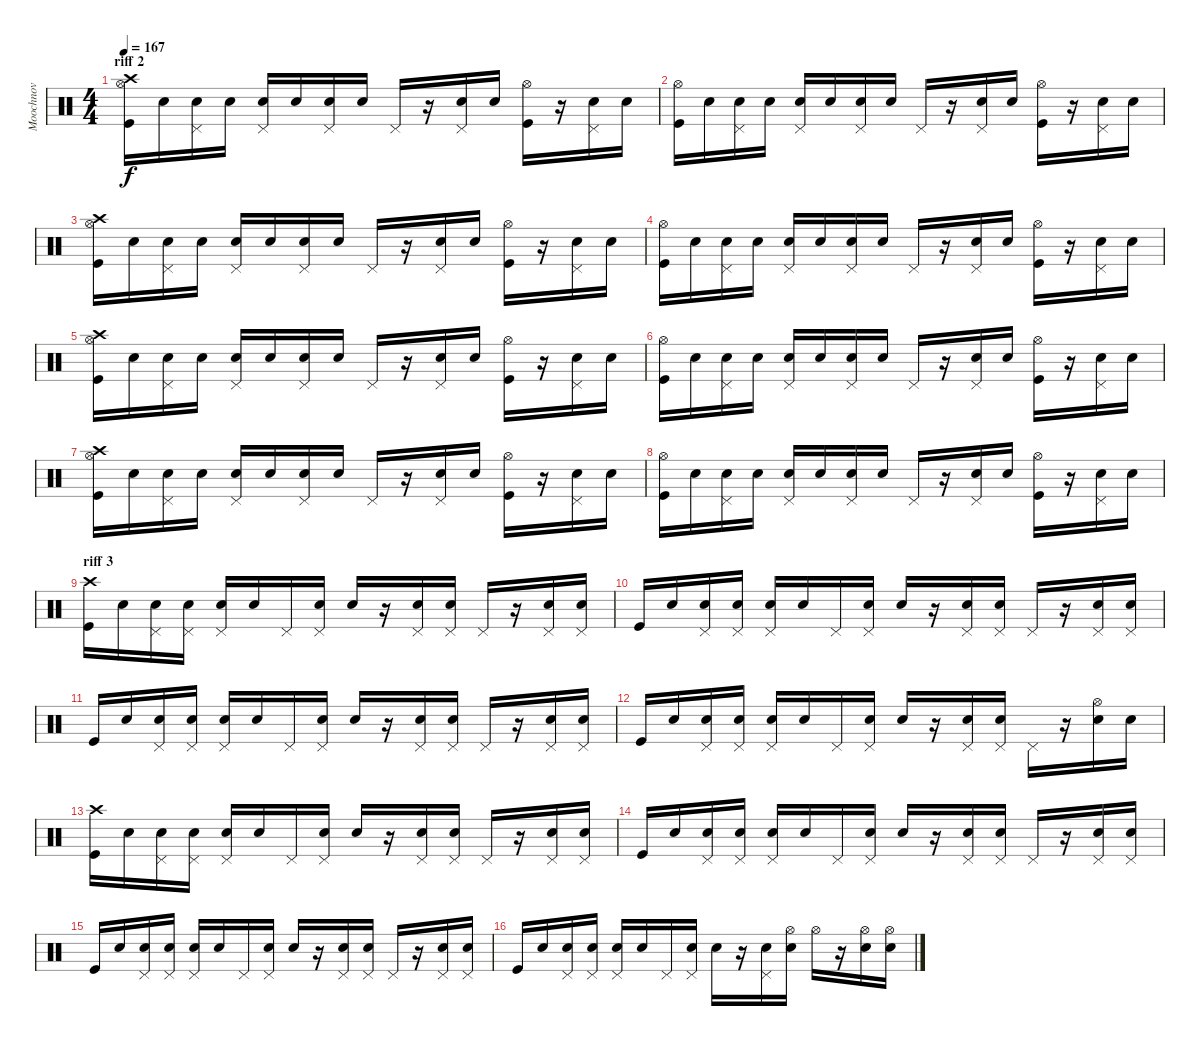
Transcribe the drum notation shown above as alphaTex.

\track ("Moochnov" "Moochnov") {instrument percussion}
\staff {score}
\articulation defaults
\ts (4 4)
\section ("" "riff 2")
\tempo 167
\clef neutral
\ks c
("Kick (hit)" "Hi-Hat (open)" "Crash high (hit)").16{dy f} "Snare (hit)"{x}.16 ("Snare (hit)"{x} "Pedal Hi-Hat (hit)").16 "Snare (hit)"{x}.16 ("Snare (hit)"{x} "Pedal Hi-Hat (hit)").16 "Snare (hit)"{x}.16 ("Snare (hit) 2" "Pedal Hi-Hat (hit)").16 "Snare (hit)"{x}.16 "Pedal Hi-Hat (hit)".16 r.16 ("Snare (hit)"{x} "Pedal Hi-Hat (hit)").16 "Snare (hit)"{x}.16 ("Kick (hit)" "Hi-Hat (open)").16 r.16 ("Snare (hit)"{x} "Pedal Hi-Hat (hit)").16 "Snare (hit)"{x}.16 |
("Kick (hit)" "Hi-Hat (open)").16 "Snare (hit)"{x}.16 ("Snare (hit)"{x} "Pedal Hi-Hat (hit)").16 "Snare (hit)"{x}.16 ("Snare (hit)"{x} "Pedal Hi-Hat (hit)").16 "Snare (hit)"{x}.16 ("Snare (hit) 2" "Pedal Hi-Hat (hit)").16 "Snare (hit)"{x}.16 "Pedal Hi-Hat (hit)".16 r.16 ("Snare (hit)"{x} "Pedal Hi-Hat (hit)").16 "Snare (hit)"{x}.16 ("Kick (hit)" "Hi-Hat (open)").16 r.16 ("Snare (hit)"{x} "Pedal Hi-Hat (hit)").16 "Snare (hit)"{x}.16 |
("Kick (hit)" "Hi-Hat (open)" "Crash high (hit)").16 "Snare (hit)"{x}.16 ("Snare (hit)"{x} "Pedal Hi-Hat (hit)").16 "Snare (hit)"{x}.16 ("Snare (hit)"{x} "Pedal Hi-Hat (hit)").16 "Snare (hit)"{x}.16 ("Snare (hit) 2" "Pedal Hi-Hat (hit)").16 "Snare (hit)"{x}.16 "Pedal Hi-Hat (hit)".16 r.16 ("Snare (hit)"{x} "Pedal Hi-Hat (hit)").16 "Snare (hit)"{x}.16 ("Kick (hit)" "Hi-Hat (open)").16 r.16 ("Snare (hit)"{x} "Pedal Hi-Hat (hit)").16 "Snare (hit)"{x}.16 |
("Kick (hit)" "Hi-Hat (open)").16 "Snare (hit)"{x}.16 ("Snare (hit)"{x} "Pedal Hi-Hat (hit)").16 "Snare (hit)"{x}.16 ("Snare (hit)"{x} "Pedal Hi-Hat (hit)").16 "Snare (hit)"{x}.16 ("Snare (hit) 2" "Pedal Hi-Hat (hit)").16 "Snare (hit)"{x}.16 "Pedal Hi-Hat (hit)".16 r.16 ("Snare (hit)"{x} "Pedal Hi-Hat (hit)").16 "Snare (hit)"{x}.16 ("Kick (hit)" "Hi-Hat (open)").16 r.16 ("Snare (hit)"{x} "Pedal Hi-Hat (hit)").16 "Snare (hit)"{x}.16 |
("Kick (hit)" "Hi-Hat (open)" "Crash high (hit)").16 "Snare (hit)"{x}.16 ("Snare (hit)"{x} "Pedal Hi-Hat (hit)").16 "Snare (hit)"{x}.16 ("Snare (hit)"{x} "Pedal Hi-Hat (hit)").16 "Snare (hit)"{x}.16 ("Snare (hit) 2" "Pedal Hi-Hat (hit)").16 "Snare (hit)"{x}.16 "Pedal Hi-Hat (hit)".16 r.16 ("Snare (hit)"{x} "Pedal Hi-Hat (hit)").16 "Snare (hit)"{x}.16 ("Kick (hit)" "Hi-Hat (open)").16 r.16 ("Snare (hit)"{x} "Pedal Hi-Hat (hit)").16 "Snare (hit)"{x}.16 |
("Kick (hit)" "Hi-Hat (open)").16 "Snare (hit)"{x}.16 ("Snare (hit)"{x} "Pedal Hi-Hat (hit)").16 "Snare (hit)"{x}.16 ("Snare (hit)"{x} "Pedal Hi-Hat (hit)").16 "Snare (hit)"{x}.16 ("Snare (hit) 2" "Pedal Hi-Hat (hit)").16 "Snare (hit)"{x}.16 "Pedal Hi-Hat (hit)".16 r.16 ("Snare (hit)"{x} "Pedal Hi-Hat (hit)").16 "Snare (hit)"{x}.16 ("Kick (hit)" "Hi-Hat (open)").16 r.16 ("Snare (hit)"{x} "Pedal Hi-Hat (hit)").16 "Snare (hit)"{x}.16 |
("Kick (hit)" "Hi-Hat (open)" "Crash high (hit)").16 "Snare (hit)"{x}.16 ("Snare (hit)"{x} "Pedal Hi-Hat (hit)").16 "Snare (hit)"{x}.16 ("Snare (hit)"{x} "Pedal Hi-Hat (hit)").16 "Snare (hit)"{x}.16 ("Snare (hit) 2" "Pedal Hi-Hat (hit)").16 "Snare (hit)"{x}.16 "Pedal Hi-Hat (hit)".16 r.16 ("Snare (hit)"{x} "Pedal Hi-Hat (hit)").16 "Snare (hit)"{x}.16 ("Kick (hit)" "Hi-Hat (open)").16 r.16 ("Snare (hit)"{x} "Pedal Hi-Hat (hit)").16 "Snare (hit)"{x}.16 |
("Kick (hit)" "Hi-Hat (open)").16 "Snare (hit)"{x}.16 ("Snare (hit)"{x} "Pedal Hi-Hat (hit)").16 "Snare (hit)"{x}.16 ("Snare (hit)"{x} "Pedal Hi-Hat (hit)").16 "Snare (hit)"{x}.16 ("Snare (hit) 2" "Pedal Hi-Hat (hit)").16 "Snare (hit)"{x}.16 "Pedal Hi-Hat (hit)".16 r.16 ("Snare (hit)"{x} "Pedal Hi-Hat (hit)").16 "Snare (hit)"{x}.16 ("Kick (hit)" "Hi-Hat (open)").16 r.16 ("Snare (hit)"{x} "Pedal Hi-Hat (hit)").16 "Snare (hit)"{x}.16 |
\section ("" "riff 3")
("Kick (hit)" "Crash high (hit)").16 "Snare (hit)"{x}.16 ("Snare (hit)"{x} "Pedal Hi-Hat (hit)").16 ("Snare (hit)"{x} "Pedal Hi-Hat (hit)").16 ("Snare (hit)"{x} "Pedal Hi-Hat (hit)").16 "Snare (hit)"{x}.16 "Pedal Hi-Hat (hit)".16 ("Snare (hit)"{x} "Pedal Hi-Hat (hit)").16 "Snare (hit) 2".16 r.16 ("Snare (hit)"{x} "Pedal Hi-Hat (hit)").16 ("Snare (hit)"{x} "Pedal Hi-Hat (hit)").16 "Pedal Hi-Hat (hit)".16 r.16 ("Snare (hit)"{x} "Pedal Hi-Hat (hit)").16 ("Snare (hit)"{x} "Pedal Hi-Hat (hit)").16 |
"Kick (hit)".16 "Snare (hit)"{x}.16 ("Snare (hit)"{x} "Pedal Hi-Hat (hit)").16 ("Snare (hit)"{x} "Pedal Hi-Hat (hit)").16 ("Snare (hit)"{x} "Pedal Hi-Hat (hit)").16 "Snare (hit)"{x}.16 "Pedal Hi-Hat (hit)".16 ("Snare (hit)"{x} "Pedal Hi-Hat (hit)").16 "Snare (hit) 2".16 r.16 ("Snare (hit)"{x} "Pedal Hi-Hat (hit)").16 ("Snare (hit)"{x} "Pedal Hi-Hat (hit)").16 "Pedal Hi-Hat (hit)".16 r.16 ("Snare (hit)"{x} "Pedal Hi-Hat (hit)").16 ("Snare (hit)"{x} "Pedal Hi-Hat (hit)").16 |
"Kick (hit)".16 "Snare (hit)"{x}.16 ("Snare (hit)"{x} "Pedal Hi-Hat (hit)").16 ("Snare (hit)"{x} "Pedal Hi-Hat (hit)").16 ("Snare (hit)"{x} "Pedal Hi-Hat (hit)").16 "Snare (hit)"{x}.16 "Pedal Hi-Hat (hit)".16 ("Snare (hit)"{x} "Pedal Hi-Hat (hit)").16 "Snare (hit) 2".16 r.16 ("Snare (hit)"{x} "Pedal Hi-Hat (hit)").16 ("Snare (hit)"{x} "Pedal Hi-Hat (hit)").16 "Pedal Hi-Hat (hit)".16 r.16 ("Snare (hit)"{x} "Pedal Hi-Hat (hit)").16 ("Snare (hit)"{x} "Pedal Hi-Hat (hit)").16 |
"Kick (hit)".16 "Snare (hit)"{x}.16 ("Snare (hit)"{x} "Pedal Hi-Hat (hit)").16 ("Snare (hit)"{x} "Pedal Hi-Hat (hit)").16 ("Snare (hit)"{x} "Pedal Hi-Hat (hit)").16 "Snare (hit)"{x}.16 "Pedal Hi-Hat (hit)".16 ("Snare (hit)"{x} "Pedal Hi-Hat (hit)").16 "Snare (hit) 2".16 r.16 ("Snare (hit)"{x} "Pedal Hi-Hat (hit)").16 ("Snare (hit)"{x} "Pedal Hi-Hat (hit)").16 "Pedal Hi-Hat (hit)".16 r.16 ("Snare (hit)"{x} "Hi-Hat (open)").16 "Snare (hit)"{x}.16 |
("Kick (hit)" "Crash high (hit)").16 "Snare (hit)"{x}.16 ("Snare (hit)"{x} "Pedal Hi-Hat (hit)").16 ("Snare (hit)"{x} "Pedal Hi-Hat (hit)").16 ("Snare (hit)"{x} "Pedal Hi-Hat (hit)").16 "Snare (hit)"{x}.16 "Pedal Hi-Hat (hit)".16 ("Snare (hit)"{x} "Pedal Hi-Hat (hit)").16 "Snare (hit) 2".16 r.16 ("Snare (hit)"{x} "Pedal Hi-Hat (hit)").16 ("Snare (hit)"{x} "Pedal Hi-Hat (hit)").16 "Pedal Hi-Hat (hit)".16 r.16 ("Snare (hit)"{x} "Pedal Hi-Hat (hit)").16 ("Snare (hit)"{x} "Pedal Hi-Hat (hit)").16 |
"Kick (hit)".16 "Snare (hit)"{x}.16 ("Snare (hit)"{x} "Pedal Hi-Hat (hit)").16 ("Snare (hit)"{x} "Pedal Hi-Hat (hit)").16 ("Snare (hit)"{x} "Pedal Hi-Hat (hit)").16 "Snare (hit)"{x}.16 "Pedal Hi-Hat (hit)".16 ("Snare (hit)"{x} "Pedal Hi-Hat (hit)").16 "Snare (hit) 2".16 r.16 ("Snare (hit)"{x} "Pedal Hi-Hat (hit)").16 ("Snare (hit)"{x} "Pedal Hi-Hat (hit)").16 "Pedal Hi-Hat (hit)".16 r.16 ("Snare (hit)"{x} "Pedal Hi-Hat (hit)").16 ("Snare (hit)"{x} "Pedal Hi-Hat (hit)").16 |
"Kick (hit)".16 "Snare (hit)"{x}.16 ("Snare (hit)"{x} "Pedal Hi-Hat (hit)").16 ("Snare (hit)"{x} "Pedal Hi-Hat (hit)").16 ("Snare (hit)"{x} "Pedal Hi-Hat (hit)").16 "Snare (hit)"{x}.16 "Pedal Hi-Hat (hit)".16 ("Snare (hit)"{x} "Pedal Hi-Hat (hit)").16 "Snare (hit) 2".16 r.16 ("Snare (hit)"{x} "Pedal Hi-Hat (hit)").16 ("Snare (hit)"{x} "Pedal Hi-Hat (hit)").16 "Pedal Hi-Hat (hit)".16 r.16 ("Snare (hit)"{x} "Pedal Hi-Hat (hit)").16 ("Snare (hit)"{x} "Pedal Hi-Hat (hit)").16 |
"Kick (hit)".16 "Snare (hit)"{x}.16 ("Snare (hit)"{x} "Pedal Hi-Hat (hit)").16 ("Snare (hit)"{x} "Pedal Hi-Hat (hit)").16 ("Snare (hit)"{x} "Pedal Hi-Hat (hit)").16 "Snare (hit)"{x}.16 "Pedal Hi-Hat (hit)".16 ("Snare (hit)"{x} "Pedal Hi-Hat (hit)").16 "Snare (hit) 2".16 r.16 ("Snare (hit)"{x} "Pedal Hi-Hat (hit)").16 ("Snare (hit)"{x} "Hi-Hat (open)").16 "Hi-Hat (open)".16 r.16 ("Snare (hit)"{x} "Hi-Hat (open)").16 ("Snare (hit)"{x} "Hi-Hat (open)").16
